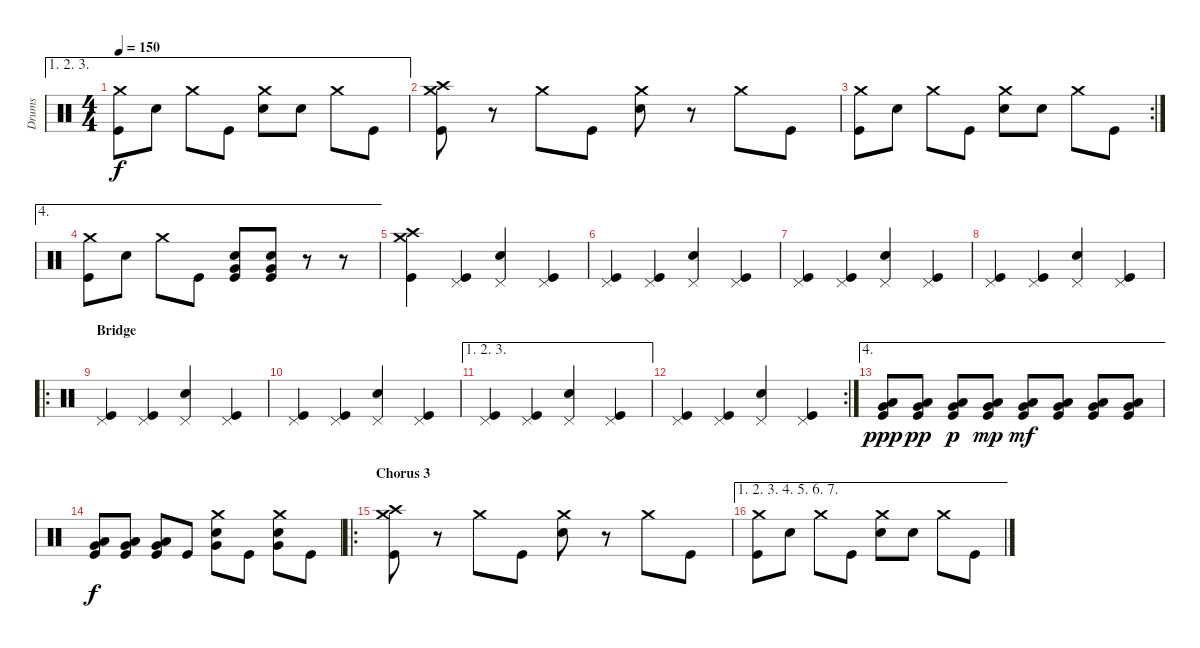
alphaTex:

\track ("Drums" "Drums") {instrument percussion}
\staff {score}
\articulation defaults
\ae (1 2 3)
\ts (4 4)
\tempo 150
\clef neutral
\ks c
("Crash medium (hit)" "Kick (hit)").8{dy f} "Electric Snare (hit)".8 "Crash medium (hit)".8 "Kick (hit)".8 ("Crash medium (hit)" "Electric Snare (hit)").8 "Electric Snare (hit)".8 "Crash medium (hit)".8 "Kick (hit)".8 |
("Crash medium (hit)" "Crash high (hit)" "Kick (hit)").8 r.8 "Crash medium (hit)".8 "Kick (hit)".8 ("Crash medium (hit)" "Electric Snare (hit)").8 r.8 "Crash medium (hit)".8 "Kick (hit)".8 |
\rc 2
("Crash medium (hit)" "Kick (hit)").8 "Electric Snare (hit)".8 "Crash medium (hit)".8 "Kick (hit)".8 ("Crash medium (hit)" "Electric Snare (hit)").8 "Electric Snare (hit)".8 "Crash medium (hit)".8 "Kick (hit)".8 |
\ae 4
("Crash medium (hit)" "Kick (hit)").8 "Electric Snare (hit)".8 "Crash medium (hit)".8 "Kick (hit)".8 ("Electric Snare (hit)" "Very Low Tom (hit)" "Kick (hit)").8 ("Electric Snare (hit)" "Very Low Tom (hit)" "Kick (hit)").8 r.8 r.8 |
("Crash medium (hit)" "Crash high (hit)" "Kick (hit)").4 ("Pedal Hi-Hat (hit)" "Kick (hit)").4 ("Pedal Hi-Hat (hit)" "Electric Snare (hit)").4 ("Pedal Hi-Hat (hit)" "Kick (hit)").4 |
("Pedal Hi-Hat (hit)" "Kick (hit)").4 ("Pedal Hi-Hat (hit)" "Kick (hit)").4 ("Pedal Hi-Hat (hit)" "Electric Snare (hit)").4 ("Pedal Hi-Hat (hit)" "Kick (hit)").4 |
("Pedal Hi-Hat (hit)" "Kick (hit)").4 ("Pedal Hi-Hat (hit)" "Kick (hit)").4 ("Pedal Hi-Hat (hit)" "Electric Snare (hit)").4 ("Pedal Hi-Hat (hit)" "Kick (hit)").4 |
("Pedal Hi-Hat (hit)" "Kick (hit)").4 ("Pedal Hi-Hat (hit)" "Kick (hit)").4 ("Pedal Hi-Hat (hit)" "Electric Snare (hit)").4 ("Pedal Hi-Hat (hit)" "Kick (hit)").4 |
\ro
\section ("" "Bridge")
("Pedal Hi-Hat (hit)" "Kick (hit)").4 ("Pedal Hi-Hat (hit)" "Kick (hit)").4 ("Pedal Hi-Hat (hit)" "Electric Snare (hit)").4 ("Pedal Hi-Hat (hit)" "Kick (hit)").4 |
("Pedal Hi-Hat (hit)" "Kick (hit)").4 ("Pedal Hi-Hat (hit)" "Kick (hit)").4 ("Pedal Hi-Hat (hit)" "Electric Snare (hit)").4 ("Pedal Hi-Hat (hit)" "Kick (hit)").4 |
\ae (1 2 3)
("Pedal Hi-Hat (hit)" "Kick (hit)").4 ("Pedal Hi-Hat (hit)" "Kick (hit)").4 ("Pedal Hi-Hat (hit)" "Electric Snare (hit)").4 ("Pedal Hi-Hat (hit)" "Kick (hit)").4 |
\rc 2
("Pedal Hi-Hat (hit)" "Kick (hit)").4 ("Pedal Hi-Hat (hit)" "Kick (hit)").4 ("Pedal Hi-Hat (hit)" "Electric Snare (hit)").4 ("Pedal Hi-Hat (hit)" "Kick (hit)").4 |
\ae 4
("Low Floor Tom (hit)" "Very Low Tom (hit)" "Kick (hit)").8{dy ppp} ("Low Floor Tom (hit)" "Very Low Tom (hit)" "Kick (hit)").8{dy pp} ("Low Floor Tom (hit)" "Very Low Tom (hit)" "Kick (hit)").8{dy p} ("Low Floor Tom (hit)" "Very Low Tom (hit)" "Kick (hit)").8{dy mp} ("Low Floor Tom (hit)" "Very Low Tom (hit)" "Kick (hit)").8{dy mf} ("Low Floor Tom (hit)" "Very Low Tom (hit)" "Kick (hit)").8 ("Low Floor Tom (hit)" "Very Low Tom (hit)" "Kick (hit)").8 ("Low Floor Tom (hit)" "Very Low Tom (hit)" "Kick (hit)").8 |
("Low Floor Tom (hit)" "Very Low Tom (hit)" "Kick (hit)").8{dy f} ("Low Floor Tom (hit)" "Very Low Tom (hit)" "Kick (hit)").8 ("Low Floor Tom (hit)" "Very Low Tom (hit)" "Kick (hit)").8 "Kick (hit)".8 ("Crash medium (hit)" "Electric Snare (hit)" "Very Low Tom (hit)").8 "Kick (hit)".8 ("Crash medium (hit)" "Electric Snare (hit)" "Very Low Tom (hit)").8 "Kick (hit)".8 |
\ro
\section ("" "Chorus 3")
("Crash medium (hit)" "Crash high (hit)" "Kick (hit)").8 r.8 "Crash medium (hit)".8 "Kick (hit)".8 ("Crash medium (hit)" "Electric Snare (hit)").8 r.8 "Crash medium (hit)".8 "Kick (hit)".8 |
\ae (1 2 3 4 5 6 7)
("Crash medium (hit)" "Kick (hit)").8 "Electric Snare (hit)".8 "Crash medium (hit)".8 "Kick (hit)".8 ("Crash medium (hit)" "Electric Snare (hit)").8 "Electric Snare (hit)".8 "Crash medium (hit)".8 "Kick (hit)".8
